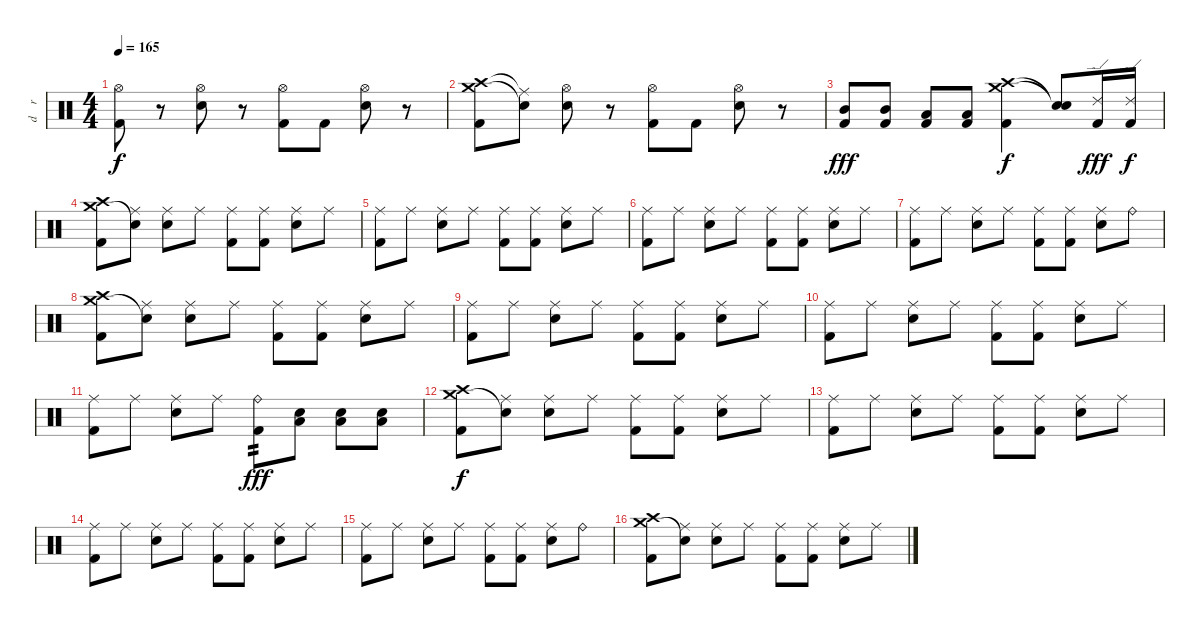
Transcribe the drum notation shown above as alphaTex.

\track ("d    r    u    m    s" "d    r    ") {instrument percussion}
\staff {score}
\articulation defaults
\ts (4 4)
\tempo 165
\clef neutral
\ks c
("Hi-Hat (open)" "Kick (hit) 2").8{dy f} r.8 ("Hi-Hat (open)" "Electric Snare (hit)").8 r.8 ("Hi-Hat (open)" "Kick (hit) 2").8 "Kick (hit) 2".8 ("Hi-Hat (open)" "Electric Snare (hit)").8 r.8 |
("Crash high (hit)" "Crash medium (hit)" "Kick (hit) 2").8 ("Ride (middle)"{t} "Snare (hit)"{t}).8 ("Hi-Hat (open)" "Electric Snare (hit)").8 r.8 ("Hi-Hat (open)" "Kick (hit) 2").8 "Kick (hit) 2".8 ("Hi-Hat (open)" "Electric Snare (hit)").8 r.8 |
("Mid Tom (hit)" "Kick (hit) 2").8{dy fff} ("Mid Tom (hit)" "Kick (hit) 2").8 ("Low Tom (hit)" "Kick (hit) 2").8 ("Low Tom (hit)" "Kick (hit) 2").8 ("Crash high (hit)" "Crash medium (hit)" "Kick (hit) 2").4{dy f} ("Snare (hit)"{t} "Snare (hit)"{t}).8 ("Ride (edge) 2" "Kick (hit) 2").16{dy fff} ("Ride (edge) 2" "Kick (hit) 2").16{dy f} |
("Crash high (hit)" "Crash medium (hit)" "Kick (hit) 2").8 ("Ride (middle)" "Snare (hit)"{t}).8 ("Ride (middle)" "Electric Snare (hit)").8 "Ride (middle)".8 ("Ride (middle)" "Kick (hit) 2").8 ("Ride (middle)" "Kick (hit) 2").8 ("Ride (middle)" "Electric Snare (hit)").8 "Ride (middle)".8 |
("Ride (middle)" "Kick (hit) 2").8 "Ride (middle)".8 ("Ride (middle)" "Electric Snare (hit)").8 "Ride (middle)".8 ("Ride (middle)" "Kick (hit) 2").8 ("Ride (middle)" "Kick (hit) 2").8 ("Ride (middle)" "Electric Snare (hit)").8 "Ride (middle)".8 |
("Ride (middle)" "Kick (hit) 2").8 "Ride (middle)".8 ("Ride (middle)" "Electric Snare (hit)").8 "Ride (middle)".8 ("Ride (middle)" "Kick (hit) 2").8 ("Ride (middle)" "Kick (hit) 2").8 ("Ride (middle)" "Electric Snare (hit)").8 "Ride (middle)".8 |
("Ride (middle)" "Kick (hit) 2").8 "Ride (middle)".8 ("Ride (middle)" "Electric Snare (hit)").8 "Ride (middle)".8 ("Ride (middle)" "Kick (hit) 2").8 ("Ride (middle)" "Kick (hit) 2").8 ("Ride (middle)" "Electric Snare (hit)").8 "Ride (bell)".8 |
("Crash high (hit)" "Crash medium (hit)" "Kick (hit) 2").8 ("Ride (middle)" "Snare (hit)"{t}).8 ("Ride (middle)" "Electric Snare (hit)").8 "Ride (middle)".8 ("Ride (middle)" "Kick (hit) 2").8 ("Ride (middle)" "Kick (hit) 2").8 ("Ride (middle)" "Electric Snare (hit)").8 "Ride (middle)".8 |
("Ride (middle)" "Kick (hit) 2").8 "Ride (middle)".8 ("Ride (middle)" "Electric Snare (hit)").8 "Ride (middle)".8 ("Ride (middle)" "Kick (hit) 2").8 ("Ride (middle)" "Kick (hit) 2").8 ("Ride (middle)" "Electric Snare (hit)").8 "Ride (middle)".8 |
("Ride (middle)" "Kick (hit) 2").8 "Ride (middle)".8 ("Ride (middle)" "Electric Snare (hit)").8 "Ride (middle)".8 ("Ride (middle)" "Kick (hit) 2").8 ("Ride (middle)" "Kick (hit) 2").8 ("Ride (middle)" "Electric Snare (hit)").8 "Ride (middle)".8 |
("Ride (middle)" "Kick (hit) 2").8 "Ride (middle)".8 ("Ride (middle)" "Electric Snare (hit)").8 "Ride (middle)".8 ("Ride (bell)" "Kick (hit) 2").8{tp 2 dy fff} ("Low Floor Tom (hit)" "Electric Snare (hit)").8 ("Low Floor Tom (hit)" "Electric Snare (hit)").8 ("Low Floor Tom (hit)" "Electric Snare (hit)").8 |
("Crash high (hit)" "Crash medium (hit)" "Kick (hit) 2").8{dy f} ("Ride (middle)" "Snare (hit)"{t}).8 ("Ride (middle)" "Electric Snare (hit)").8 "Ride (middle)".8 ("Ride (middle)" "Kick (hit) 2").8 ("Ride (middle)" "Kick (hit) 2").8 ("Ride (middle)" "Electric Snare (hit)").8 "Ride (middle)".8 |
("Ride (middle)" "Kick (hit) 2").8 "Ride (middle)".8 ("Ride (middle)" "Electric Snare (hit)").8 "Ride (middle)".8 ("Ride (middle)" "Kick (hit) 2").8 ("Ride (middle)" "Kick (hit) 2").8 ("Ride (middle)" "Electric Snare (hit)").8 "Ride (middle)".8 |
("Ride (middle)" "Kick (hit) 2").8 "Ride (middle)".8 ("Ride (middle)" "Electric Snare (hit)").8 "Ride (middle)".8 ("Ride (middle)" "Kick (hit) 2").8 ("Ride (middle)" "Kick (hit) 2").8 ("Ride (middle)" "Electric Snare (hit)").8 "Ride (middle)".8 |
("Ride (middle)" "Kick (hit) 2").8 "Ride (middle)".8 ("Ride (middle)" "Electric Snare (hit)").8 "Ride (middle)".8 ("Ride (middle)" "Kick (hit) 2").8 ("Ride (middle)" "Kick (hit) 2").8 ("Ride (middle)" "Electric Snare (hit)").8 "Ride (bell)".8 |
("Crash high (hit)" "Crash medium (hit)" "Kick (hit) 2").8 ("Ride (middle)" "Snare (hit)"{t}).8 ("Ride (middle)" "Electric Snare (hit)").8 "Ride (middle)".8 ("Ride (middle)" "Kick (hit) 2").8 ("Ride (middle)" "Kick (hit) 2").8 ("Ride (middle)" "Electric Snare (hit)").8 "Ride (middle)".8
